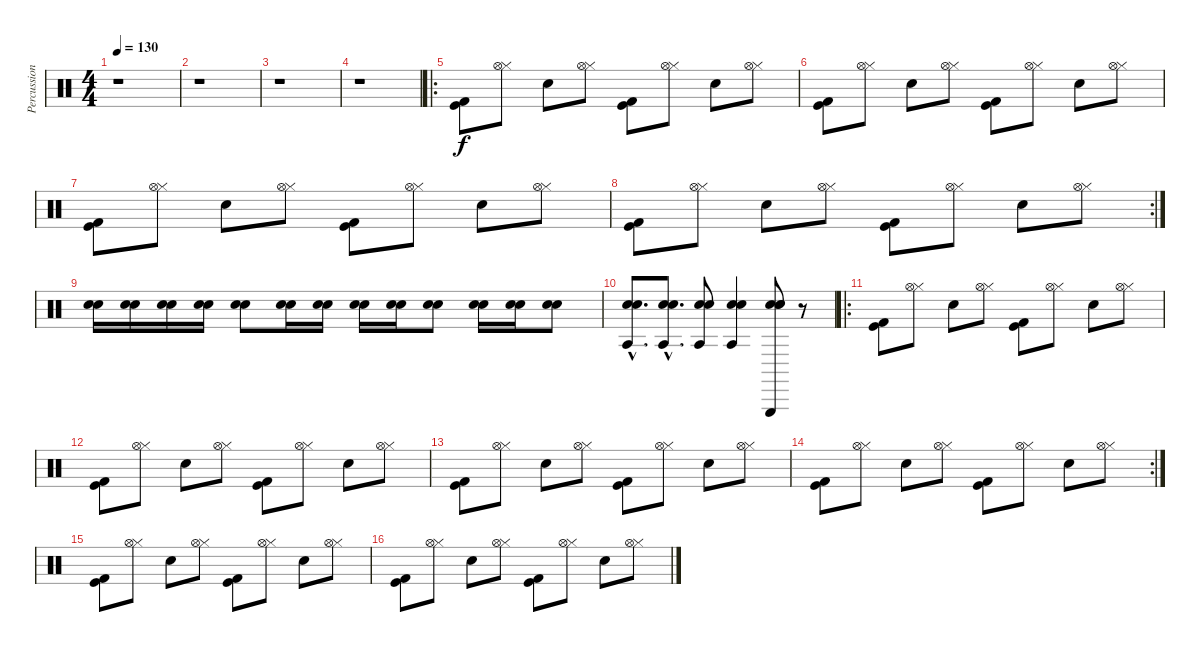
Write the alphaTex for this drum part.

\track ("Percussion" "Percussion") {instrument percussion}
\staff {score}
\articulation defaults
\ts (4 4)
\tempo 130
\clef neutral
\ks c
r.1{dy f} |
r.1 |
r.1 |
r.1 |
\ro
("Kick (hit)" "Kick (hit) 2").8 ("Hi-Hat (closed)" "Hi-Hat (open)").8 "Electric Snare (hit)".8 ("Hi-Hat (closed)" "Hi-Hat (open)").8 ("Kick (hit)" "Kick (hit) 2").8 ("Hi-Hat (closed)" "Hi-Hat (open)").8 "Electric Snare (hit)".8 ("Hi-Hat (closed)" "Hi-Hat (open)").8 |
("Kick (hit)" "Kick (hit) 2").8 ("Hi-Hat (closed)" "Hi-Hat (open)").8 "Electric Snare (hit)".8 ("Hi-Hat (closed)" "Hi-Hat (open)").8 ("Kick (hit)" "Kick (hit) 2").8 ("Hi-Hat (closed)" "Hi-Hat (open)").8 "Electric Snare (hit)".8 ("Hi-Hat (closed)" "Hi-Hat (open)").8 |
("Kick (hit)" "Kick (hit) 2").8 ("Hi-Hat (closed)" "Hi-Hat (open)").8 "Electric Snare (hit)".8 ("Hi-Hat (closed)" "Hi-Hat (open)").8 ("Kick (hit)" "Kick (hit) 2").8 ("Hi-Hat (closed)" "Hi-Hat (open)").8 "Electric Snare (hit)".8 ("Hi-Hat (closed)" "Hi-Hat (open)").8 |
\rc 2
("Kick (hit)" "Kick (hit) 2").8 ("Hi-Hat (closed)" "Hi-Hat (open)").8 "Electric Snare (hit)".8 ("Hi-Hat (closed)" "Hi-Hat (open)").8 ("Kick (hit)" "Kick (hit) 2").8 ("Hi-Hat (closed)" "Hi-Hat (open)").8 "Electric Snare (hit)".8 ("Hi-Hat (closed)" "Hi-Hat (open)").8 |
("Electric Snare (hit)" "Electric Snare (hit)").16 ("Electric Snare (hit)" "Electric Snare (hit)").16 ("Electric Snare (hit)" "Electric Snare (hit)").16 ("Electric Snare (hit)" "Electric Snare (hit)").16 ("Electric Snare (hit)" "Electric Snare (hit)").8 ("Electric Snare (hit)" "Electric Snare (hit)").16 ("Electric Snare (hit)" "Electric Snare (hit)").16 ("Electric Snare (hit)" "Electric Snare (hit)").16 ("Electric Snare (hit)" "Electric Snare (hit)").16 ("Electric Snare (hit)" "Electric Snare (hit)").8 ("Electric Snare (hit)" "Electric Snare (hit)").16 ("Electric Snare (hit)" "Electric Snare (hit)").16 ("Electric Snare (hit)" "Electric Snare (hit)").8 |
("Agogo tow (hit)"{hac} "Electric Snare (hit)"{hac} "Electric Snare (hit)"{hac}).8{d} ("Agogo tow (hit)"{hac} "Electric Snare (hit)"{hac} "Electric Snare (hit)"{hac}).8{d} ("Agogo tow (hit)" "Electric Snare (hit)" "Electric Snare (hit)").8 ("Agogo tow (hit)" "Electric Snare (hit)" "Electric Snare (hit)").4 ("Triangle (hit)" "Electric Snare (hit)" "Electric Snare (hit)" "Electric Snare (hit)").8 r.8 |
\ro
("Kick (hit)" "Kick (hit) 2").8 ("Hi-Hat (closed)" "Hi-Hat (open)").8 "Electric Snare (hit)".8 ("Hi-Hat (closed)" "Hi-Hat (open)").8 ("Kick (hit)" "Kick (hit) 2").8 ("Hi-Hat (closed)" "Hi-Hat (open)").8 "Electric Snare (hit)".8 ("Hi-Hat (closed)" "Hi-Hat (open)").8 |
("Kick (hit)" "Kick (hit) 2").8 ("Hi-Hat (closed)" "Hi-Hat (open)").8 "Electric Snare (hit)".8 ("Hi-Hat (closed)" "Hi-Hat (open)").8 ("Kick (hit)" "Kick (hit) 2").8 ("Hi-Hat (closed)" "Hi-Hat (open)").8 "Electric Snare (hit)".8 ("Hi-Hat (closed)" "Hi-Hat (open)").8 |
("Kick (hit)" "Kick (hit) 2").8 ("Hi-Hat (closed)" "Hi-Hat (open)").8 "Electric Snare (hit)".8 ("Hi-Hat (closed)" "Hi-Hat (open)").8 ("Kick (hit)" "Kick (hit) 2").8 ("Hi-Hat (closed)" "Hi-Hat (open)").8 "Electric Snare (hit)".8 ("Hi-Hat (closed)" "Hi-Hat (open)").8 |
\rc 2
("Kick (hit)" "Kick (hit) 2").8 ("Hi-Hat (closed)" "Hi-Hat (open)").8 "Electric Snare (hit)".8 ("Hi-Hat (closed)" "Hi-Hat (open)").8 ("Kick (hit)" "Kick (hit) 2").8 ("Hi-Hat (closed)" "Hi-Hat (open)").8 "Electric Snare (hit)".8 ("Hi-Hat (closed)" "Hi-Hat (open)").8 |
("Kick (hit)" "Kick (hit) 2").8 ("Hi-Hat (closed)" "Hi-Hat (open)").8 "Electric Snare (hit)".8 ("Hi-Hat (closed)" "Hi-Hat (open)").8 ("Kick (hit)" "Kick (hit) 2").8 ("Hi-Hat (closed)" "Hi-Hat (open)").8 "Electric Snare (hit)".8 ("Hi-Hat (closed)" "Hi-Hat (open)").8 |
("Kick (hit)" "Kick (hit) 2").8 ("Hi-Hat (closed)" "Hi-Hat (open)").8 "Electric Snare (hit)".8 ("Hi-Hat (closed)" "Hi-Hat (open)").8 ("Kick (hit)" "Kick (hit) 2").8 ("Hi-Hat (closed)" "Hi-Hat (open)").8 "Electric Snare (hit)".8 ("Hi-Hat (closed)" "Hi-Hat (open)").8
